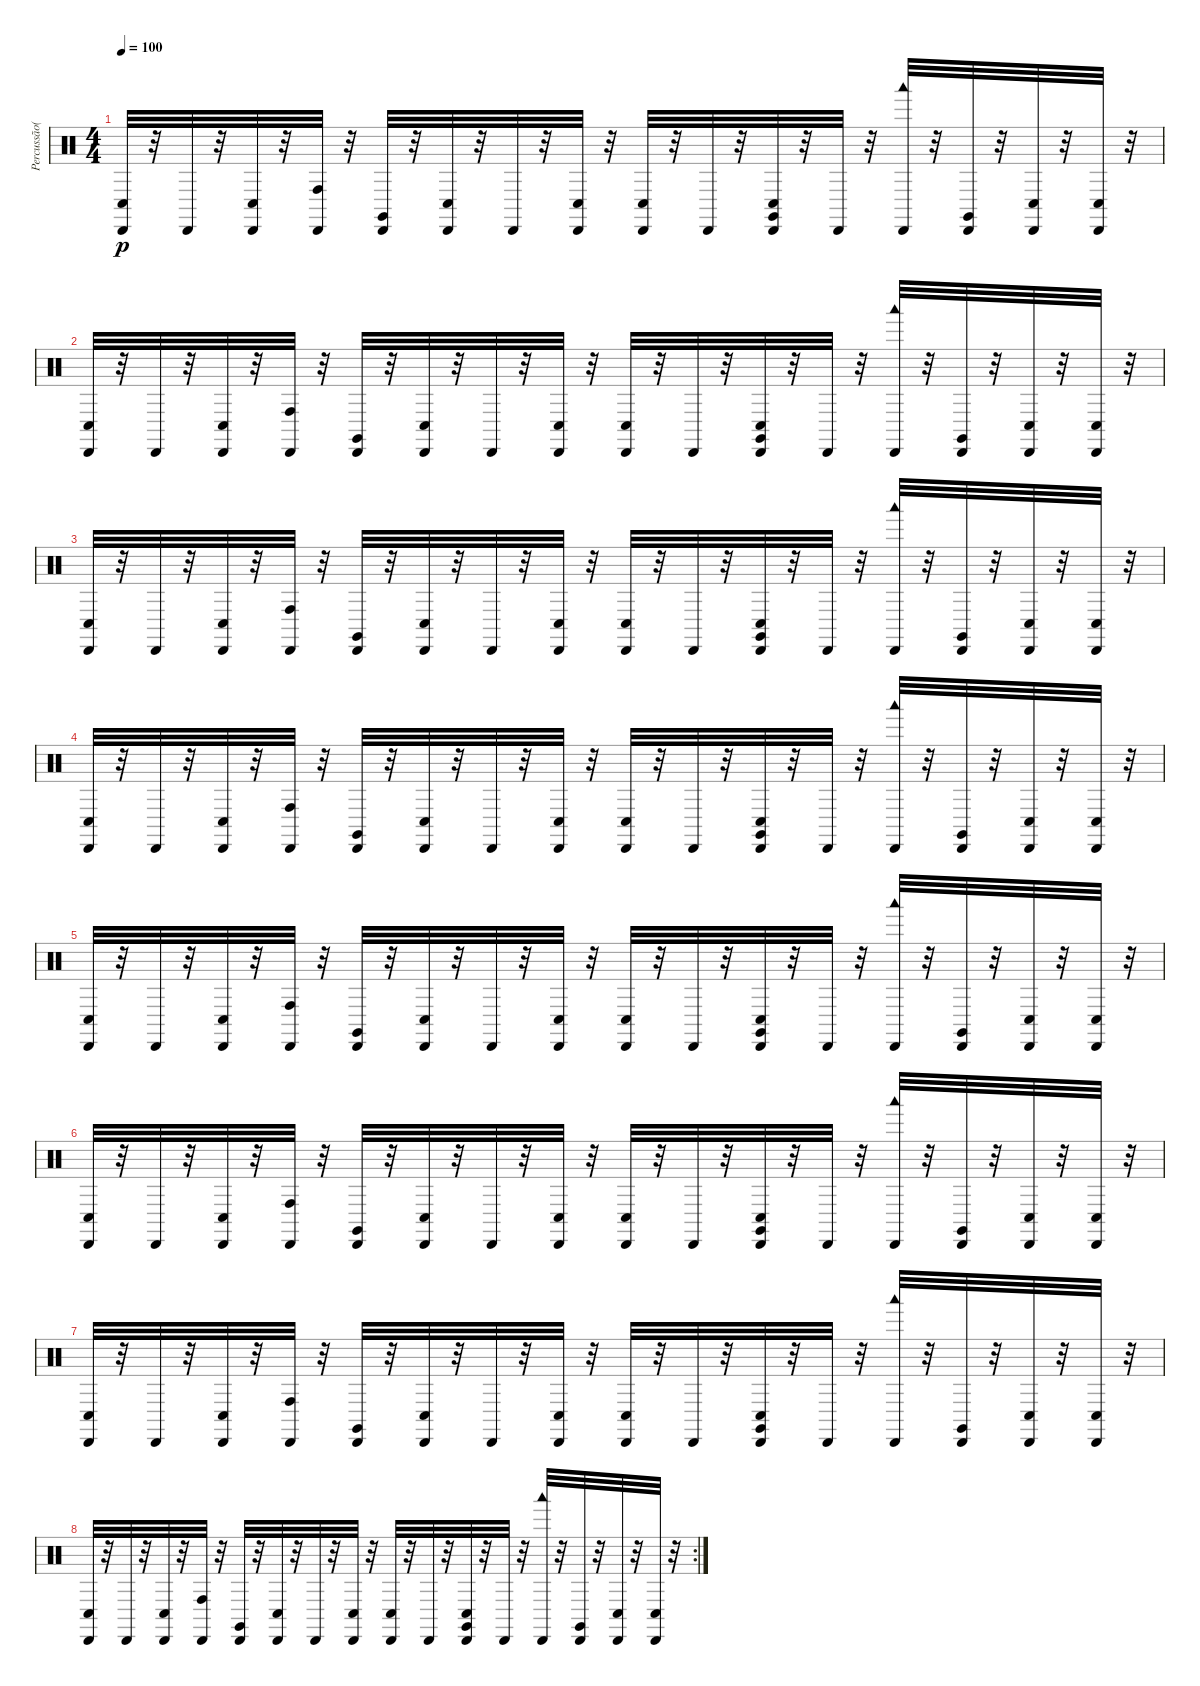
\track ("Percussão(Percussion)" "Percussão(") {instrument percussion}
\staff {score}
\articulation defaults
\ts (4 4)
\tempo 100
\clef neutral
\ks c
("Cabasa (hit)" "Conga low (hit)").32{dy p} r.32 "Cabasa (hit)".32 r.32 ("Cabasa (hit)" "Conga low (hit)").32 r.32 ("Cabasa (hit)" "Conga high (hit)").32 r.32 ("Cabasa (hit)" "Claves (hit)").32 r.32 ("Cabasa (hit)" "Conga low (hit)").32 r.32 "Cabasa (hit)".32 r.32 ("Cabasa (hit)" "Conga low (hit)").32 r.32 ("Cabasa (hit)" "Conga low (hit)").32 r.32 "Cabasa (hit)".32 r.32 ("Cabasa (hit)" "Claves (hit)" "Conga low (hit)").32 r.32 "Cabasa (hit)".32 r.32 ("Cabasa (hit)" "Woodblock low (hit)").32 r.32 ("Cabasa (hit)" "Claves (hit)").32 r.32 ("Cabasa (hit)" "Conga low (hit)").32 r.32 ("Cabasa (hit)" "Conga low (hit)").32 r.32 |
("Cabasa (hit)" "Conga low (hit)").32 r.32 "Cabasa (hit)".32 r.32 ("Cabasa (hit)" "Conga low (hit)").32 r.32 ("Cabasa (hit)" "Conga high (hit)").32 r.32 ("Cabasa (hit)" "Claves (hit)").32 r.32 ("Cabasa (hit)" "Conga low (hit)").32 r.32 "Cabasa (hit)".32 r.32 ("Cabasa (hit)" "Conga low (hit)").32 r.32 ("Cabasa (hit)" "Conga low (hit)").32 r.32 "Cabasa (hit)".32 r.32 ("Cabasa (hit)" "Claves (hit)" "Conga low (hit)").32 r.32 "Cabasa (hit)".32 r.32 ("Cabasa (hit)" "Woodblock low (hit)").32 r.32 ("Cabasa (hit)" "Claves (hit)").32 r.32 ("Cabasa (hit)" "Conga low (hit)").32 r.32 ("Cabasa (hit)" "Conga low (hit)").32 r.32 |
("Cabasa (hit)" "Conga low (hit)").32 r.32 "Cabasa (hit)".32 r.32 ("Cabasa (hit)" "Conga low (hit)").32 r.32 ("Cabasa (hit)" "Conga high (hit)").32 r.32 ("Cabasa (hit)" "Claves (hit)").32 r.32 ("Cabasa (hit)" "Conga low (hit)").32 r.32 "Cabasa (hit)".32 r.32 ("Cabasa (hit)" "Conga low (hit)").32 r.32 ("Cabasa (hit)" "Conga low (hit)").32 r.32 "Cabasa (hit)".32 r.32 ("Cabasa (hit)" "Claves (hit)" "Conga low (hit)").32 r.32 "Cabasa (hit)".32 r.32 ("Cabasa (hit)" "Woodblock low (hit)").32 r.32 ("Cabasa (hit)" "Claves (hit)").32 r.32 ("Cabasa (hit)" "Conga low (hit)").32 r.32 ("Cabasa (hit)" "Conga low (hit)").32 r.32 |
("Cabasa (hit)" "Conga low (hit)").32 r.32 "Cabasa (hit)".32 r.32 ("Cabasa (hit)" "Conga low (hit)").32 r.32 ("Cabasa (hit)" "Conga high (hit)").32 r.32 ("Cabasa (hit)" "Claves (hit)").32 r.32 ("Cabasa (hit)" "Conga low (hit)").32 r.32 "Cabasa (hit)".32 r.32 ("Cabasa (hit)" "Conga low (hit)").32 r.32 ("Cabasa (hit)" "Conga low (hit)").32 r.32 "Cabasa (hit)".32 r.32 ("Cabasa (hit)" "Claves (hit)" "Conga low (hit)").32 r.32 "Cabasa (hit)".32 r.32 ("Cabasa (hit)" "Woodblock low (hit)").32 r.32 ("Cabasa (hit)" "Claves (hit)").32 r.32 ("Cabasa (hit)" "Conga low (hit)").32 r.32 ("Cabasa (hit)" "Conga low (hit)").32 r.32 |
("Cabasa (hit)" "Conga low (hit)").32 r.32 "Cabasa (hit)".32 r.32 ("Cabasa (hit)" "Conga low (hit)").32 r.32 ("Cabasa (hit)" "Conga high (hit)").32 r.32 ("Cabasa (hit)" "Claves (hit)").32 r.32 ("Cabasa (hit)" "Conga low (hit)").32 r.32 "Cabasa (hit)".32 r.32 ("Cabasa (hit)" "Conga low (hit)").32 r.32 ("Cabasa (hit)" "Conga low (hit)").32 r.32 "Cabasa (hit)".32 r.32 ("Cabasa (hit)" "Claves (hit)" "Conga low (hit)").32 r.32 "Cabasa (hit)".32 r.32 ("Cabasa (hit)" "Woodblock low (hit)").32 r.32 ("Cabasa (hit)" "Claves (hit)").32 r.32 ("Cabasa (hit)" "Conga low (hit)").32 r.32 ("Cabasa (hit)" "Conga low (hit)").32 r.32 |
("Cabasa (hit)" "Conga low (hit)").32 r.32 "Cabasa (hit)".32 r.32 ("Cabasa (hit)" "Conga low (hit)").32 r.32 ("Cabasa (hit)" "Conga high (hit)").32 r.32 ("Cabasa (hit)" "Claves (hit)").32 r.32 ("Cabasa (hit)" "Conga low (hit)").32 r.32 "Cabasa (hit)".32 r.32 ("Cabasa (hit)" "Conga low (hit)").32 r.32 ("Cabasa (hit)" "Conga low (hit)").32 r.32 "Cabasa (hit)".32 r.32 ("Cabasa (hit)" "Claves (hit)" "Conga low (hit)").32 r.32 "Cabasa (hit)".32 r.32 ("Cabasa (hit)" "Woodblock low (hit)").32 r.32 ("Cabasa (hit)" "Claves (hit)").32 r.32 ("Cabasa (hit)" "Conga low (hit)").32 r.32 ("Cabasa (hit)" "Conga low (hit)").32 r.32 |
("Cabasa (hit)" "Conga low (hit)").32 r.32 "Cabasa (hit)".32 r.32 ("Cabasa (hit)" "Conga low (hit)").32 r.32 ("Cabasa (hit)" "Conga high (hit)").32 r.32 ("Cabasa (hit)" "Claves (hit)").32 r.32 ("Cabasa (hit)" "Conga low (hit)").32 r.32 "Cabasa (hit)".32 r.32 ("Cabasa (hit)" "Conga low (hit)").32 r.32 ("Cabasa (hit)" "Conga low (hit)").32 r.32 "Cabasa (hit)".32 r.32 ("Cabasa (hit)" "Claves (hit)" "Conga low (hit)").32 r.32 "Cabasa (hit)".32 r.32 ("Cabasa (hit)" "Woodblock low (hit)").32 r.32 ("Cabasa (hit)" "Claves (hit)").32 r.32 ("Cabasa (hit)" "Conga low (hit)").32 r.32 ("Cabasa (hit)" "Conga low (hit)").32 r.32 |
\rc 2
("Cabasa (hit)" "Conga low (hit)").32 r.32 "Cabasa (hit)".32 r.32 ("Cabasa (hit)" "Conga low (hit)").32 r.32 ("Cabasa (hit)" "Conga high (hit)").32 r.32 ("Cabasa (hit)" "Claves (hit)").32 r.32 ("Cabasa (hit)" "Conga low (hit)").32 r.32 "Cabasa (hit)".32 r.32 ("Cabasa (hit)" "Conga low (hit)").32 r.32 ("Cabasa (hit)" "Conga low (hit)").32 r.32 "Cabasa (hit)".32 r.32 ("Cabasa (hit)" "Claves (hit)" "Conga low (hit)").32 r.32 "Cabasa (hit)".32 r.32 ("Cabasa (hit)" "Woodblock low (hit)").32 r.32 ("Cabasa (hit)" "Claves (hit)").32 r.32 ("Cabasa (hit)" "Conga low (hit)").32 r.32 ("Cabasa (hit)" "Conga low (hit)").32 r.32
